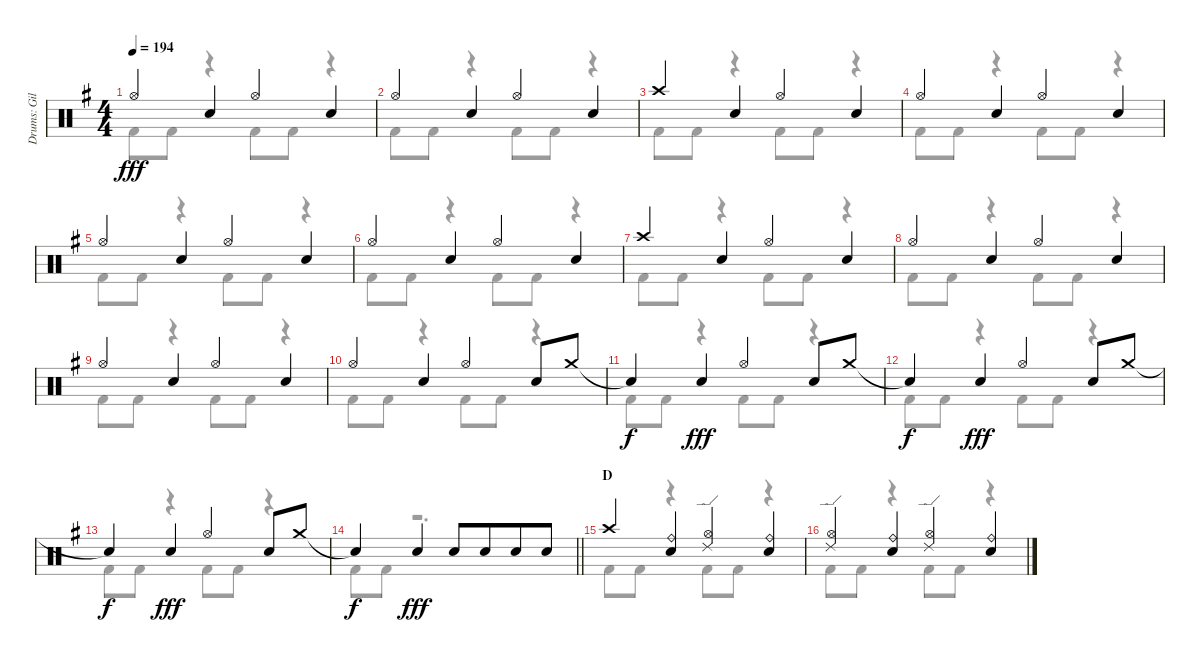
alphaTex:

\track ("Drums: Gil" "Drums: Gil") {instrument percussion}
\staff {score}
\articulation defaults
\voice
\ts (4 4)
\tempo 194
\clef neutral
\ks g "Hi-Hat (open)".4{dy fff} "Snare (hit) 2".4 "Hi-Hat (open)".4 "Snare (hit) 2".4
|
"Hi-Hat (open)".4 "Snare (hit) 2".4 "Hi-Hat (open)".4 "Snare (hit) 2".4 |
"Crash high (hit)".4 "Snare (hit) 2".4 "Hi-Hat (open)".4 "Snare (hit) 2".4 |
"Hi-Hat (open)".4 "Snare (hit) 2".4 "Hi-Hat (open)".4 "Snare (hit) 2".4 |
"Hi-Hat (open)".4 "Snare (hit) 2".4 "Hi-Hat (open)".4 "Snare (hit) 2".4 |
"Hi-Hat (open)".4 "Snare (hit) 2".4 "Hi-Hat (open)".4 "Snare (hit) 2".4 |
"Crash high (hit)".4 "Snare (hit) 2".4 "Hi-Hat (open)".4 "Snare (hit) 2".4 |
"Hi-Hat (open)".4 "Snare (hit) 2".4 "Hi-Hat (open)".4 "Snare (hit) 2".4 |
"Hi-Hat (open)".4 "Snare (hit) 2".4 "Hi-Hat (open)".4 "Snare (hit) 2".4 |
"Hi-Hat (open)".4 "Snare (hit) 2".4 "Hi-Hat (open)".4 "Snare (hit) 2".8 "Crash medium (hit)".8 |
"Snare (hit)"{t}.4{dy f} "Snare (hit) 2".4{dy fff} "Hi-Hat (open)".4 "Snare (hit) 2".8 "Crash medium (hit)".8 |
"Snare (hit)"{t}.4{dy f} "Snare (hit) 2".4{dy fff} "Hi-Hat (open)".4 "Snare (hit) 2".8 "Crash medium (hit)".8 |
"Snare (hit)"{t}.4{dy f} "Snare (hit) 2".4{dy fff} "Hi-Hat (open)".4 "Snare (hit) 2".8 "Crash medium (hit)".8 |
\barLineRight lightlight "Snare (hit)"{t}.4{dy f} "Snare (hit) 2".4{dy fff} "Snare (hit) 2".8 "Snare (hit) 2".8{beam merge} "Snare (hit) 2".8 "Snare (hit) 2".8
|
\section ("" "D")
"Crash high (hit)".4 ("Ride (bell)" "Snare (hit) 2").4 ("Ride (edge) 2" "Hi-Hat (open)").4 ("Ride (bell)" "Snare (hit) 2").4 |
("Ride (edge) 2" "Hi-Hat (open)").4 ("Ride (bell)" "Snare (hit) 2").4 ("Ride (edge) 2" "Hi-Hat (open)").4 ("Ride (bell)" "Snare (hit) 2").4
\voice
\clef neutral
\ottava regular
\simile none
\ks g "Kick (hit) 2".8{dy fff} "Kick (hit) 2".8
r.4 "Kick (hit) 2".8 "Kick (hit) 2".8 r.4 |
"Kick (hit) 2".8 "Kick (hit) 2".8 r.4 "Kick (hit) 2".8 "Kick (hit) 2".8 r.4 |
"Kick (hit) 2".8 "Kick (hit) 2".8 r.4 "Kick (hit) 2".8 "Kick (hit) 2".8 r.4 |
"Kick (hit) 2".8 "Kick (hit) 2".8 r.4 "Kick (hit) 2".8 "Kick (hit) 2".8 r.4 |
"Kick (hit) 2".8 "Kick (hit) 2".8 r.4 "Kick (hit) 2".8 "Kick (hit) 2".8 r.4 |
"Kick (hit) 2".8 "Kick (hit) 2".8 r.4 "Kick (hit) 2".8 "Kick (hit) 2".8 r.4 |
"Kick (hit) 2".8 "Kick (hit) 2".8 r.4 "Kick (hit) 2".8 "Kick (hit) 2".8 r.4 |
"Kick (hit) 2".8 "Kick (hit) 2".8 r.4 "Kick (hit) 2".8 "Kick (hit) 2".8 r.4 |
"Kick (hit) 2".8 "Kick (hit) 2".8 r.4 "Kick (hit) 2".8 "Kick (hit) 2".8 r.4 |
"Kick (hit) 2".8 "Kick (hit) 2".8 r.4 "Kick (hit) 2".8 "Kick (hit) 2".8 r.4 |
"Kick (hit) 2".8 "Kick (hit) 2".8 r.4 "Kick (hit) 2".8 "Kick (hit) 2".8 r.4 |
"Kick (hit) 2".8 "Kick (hit) 2".8 r.4 "Kick (hit) 2".8 "Kick (hit) 2".8 r.4 |
"Kick (hit) 2".8 "Kick (hit) 2".8 r.4 "Kick (hit) 2".8 "Kick (hit) 2".8 r.4 |
\barLineRight lightlight "Kick (hit) 2".8 "Kick (hit) 2".8
r.2{d} |
"Kick (hit) 2".8 "Kick (hit) 2".8 r.4 "Kick (hit) 2".8 "Kick (hit) 2".8 r.4 |
"Kick (hit) 2".8 "Kick (hit) 2".8 r.4 "Kick (hit) 2".8 "Kick (hit) 2".8 r.4
